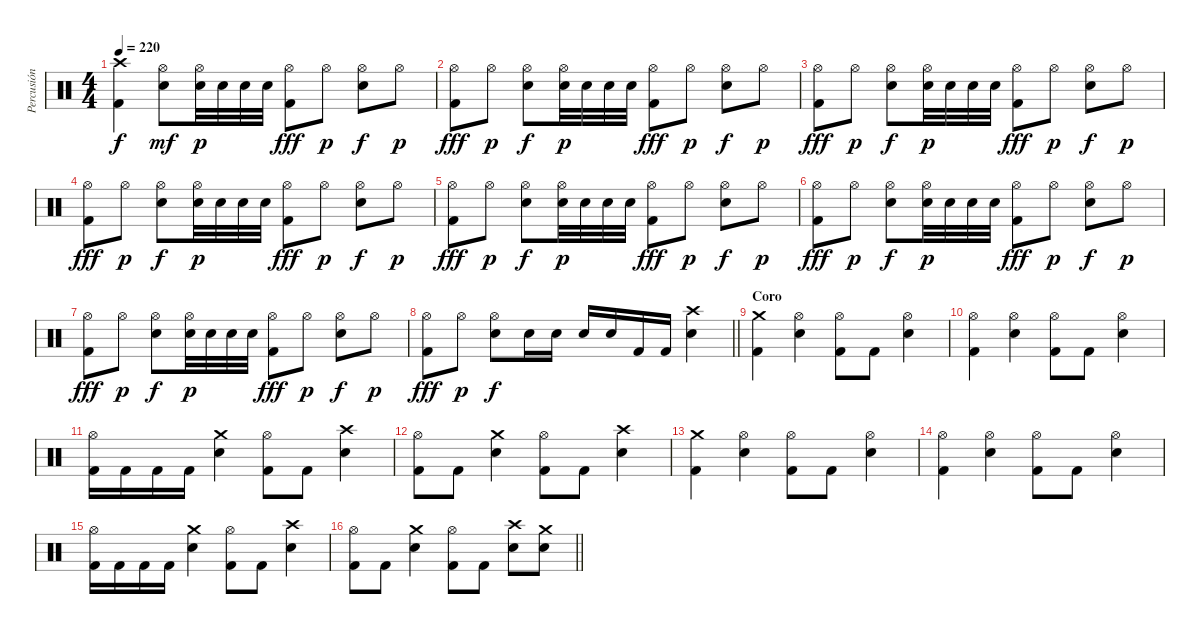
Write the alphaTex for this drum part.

\track ("Percusión" "Percusión") {instrument percussion}
\staff {score}
\articulation defaults
\ts (4 4)
\tempo 220
\clef neutral
\ks c
("Crash high (hit)" "Kick (hit) 2").4{dy f} ("Hi-Hat (open)" "Snare (hit) 2").8{dy mf} ("Hi-Hat (open)" "Snare (hit) 2").32{dy p} "Snare (hit) 2".32 "Snare (hit) 2".32 "Snare (hit) 2".32 ("Hi-Hat (open)" "Kick (hit) 2").8{dy fff} "Hi-Hat (open)".8{dy p} ("Hi-Hat (open)" "Snare (hit) 2").8{dy f} "Hi-Hat (open)".8{dy p} |
("Hi-Hat (open)" "Kick (hit) 2").8{dy fff} "Hi-Hat (open)".8{dy p} ("Hi-Hat (open)" "Snare (hit) 2").8{dy f} ("Hi-Hat (open)" "Snare (hit) 2").32{dy p} "Snare (hit) 2".32 "Snare (hit) 2".32 "Snare (hit) 2".32 ("Hi-Hat (open)" "Kick (hit) 2").8{dy fff} "Hi-Hat (open)".8{dy p} ("Hi-Hat (open)" "Snare (hit) 2").8{dy f} "Hi-Hat (open)".8{dy p} |
("Hi-Hat (open)" "Kick (hit) 2").8{dy fff} "Hi-Hat (open)".8{dy p} ("Hi-Hat (open)" "Snare (hit) 2").8{dy f} ("Hi-Hat (open)" "Snare (hit) 2").32{dy p} "Snare (hit) 2".32 "Snare (hit) 2".32 "Snare (hit) 2".32 ("Hi-Hat (open)" "Kick (hit) 2").8{dy fff} "Hi-Hat (open)".8{dy p} ("Hi-Hat (open)" "Snare (hit) 2").8{dy f} "Hi-Hat (open)".8{dy p} |
("Hi-Hat (open)" "Kick (hit) 2").8{dy fff} "Hi-Hat (open)".8{dy p} ("Hi-Hat (open)" "Snare (hit) 2").8{dy f} ("Hi-Hat (open)" "Snare (hit) 2").32{dy p} "Snare (hit) 2".32 "Snare (hit) 2".32 "Snare (hit) 2".32 ("Hi-Hat (open)" "Kick (hit) 2").8{dy fff} "Hi-Hat (open)".8{dy p} ("Hi-Hat (open)" "Snare (hit) 2").8{dy f} "Hi-Hat (open)".8{dy p} |
("Hi-Hat (open)" "Kick (hit) 2").8{dy fff} "Hi-Hat (open)".8{dy p} ("Hi-Hat (open)" "Snare (hit) 2").8{dy f} ("Hi-Hat (open)" "Snare (hit) 2").32{dy p} "Snare (hit) 2".32 "Snare (hit) 2".32 "Snare (hit) 2".32 ("Hi-Hat (open)" "Kick (hit) 2").8{dy fff} "Hi-Hat (open)".8{dy p} ("Hi-Hat (open)" "Snare (hit) 2").8{dy f} "Hi-Hat (open)".8{dy p} |
("Hi-Hat (open)" "Kick (hit) 2").8{dy fff} "Hi-Hat (open)".8{dy p} ("Hi-Hat (open)" "Snare (hit) 2").8{dy f} ("Hi-Hat (open)" "Snare (hit) 2").32{dy p} "Snare (hit) 2".32 "Snare (hit) 2".32 "Snare (hit) 2".32 ("Hi-Hat (open)" "Kick (hit) 2").8{dy fff} "Hi-Hat (open)".8{dy p} ("Hi-Hat (open)" "Snare (hit) 2").8{dy f} "Hi-Hat (open)".8{dy p} |
("Hi-Hat (open)" "Kick (hit) 2").8{dy fff} "Hi-Hat (open)".8{dy p} ("Hi-Hat (open)" "Snare (hit) 2").8{dy f} ("Hi-Hat (open)" "Snare (hit) 2").32{dy p} "Snare (hit) 2".32 "Snare (hit) 2".32 "Snare (hit) 2".32 ("Hi-Hat (open)" "Kick (hit) 2").8{dy fff} "Hi-Hat (open)".8{dy p} ("Hi-Hat (open)" "Snare (hit) 2").8{dy f} "Hi-Hat (open)".8{dy p} |
\barLineRight lightlight
("Hi-Hat (open)" "Kick (hit) 2").8{dy fff} "Hi-Hat (open)".8{dy p} ("Hi-Hat (open)" "Snare (hit) 2").8{dy f} "Snare (hit) 2".16 "Snare (hit) 2".16 "Snare (hit) 2".16 "Snare (hit) 2".16 "Kick (hit) 2".16 "Kick (hit) 2".16 ("Crash high (hit)" "Snare (hit) 2").4 |
\section ("" "Coro")
("Crash medium (hit)" "Kick (hit) 2").4 ("Hi-Hat (open)" "Snare (hit) 2").4 ("Hi-Hat (open)" "Kick (hit) 2").8 "Kick (hit) 2".8 ("Hi-Hat (open)" "Snare (hit) 2").4 |
("Hi-Hat (open)" "Kick (hit) 2").4 ("Hi-Hat (open)" "Snare (hit) 2").4 ("Hi-Hat (open)" "Kick (hit) 2").8 "Kick (hit) 2".8 ("Hi-Hat (open)" "Snare (hit) 2").4 |
("Hi-Hat (open)" "Kick (hit) 2").16 "Kick (hit) 2".16 "Kick (hit) 2".16 "Kick (hit) 2".16 ("Crash medium (hit)" "Snare (hit) 2").4 ("Hi-Hat (open)" "Kick (hit) 2").8 "Kick (hit) 2".8 ("Crash high (hit)" "Snare (hit) 2").4 |
("Hi-Hat (open)" "Kick (hit) 2").8 "Kick (hit) 2".8 ("Crash medium (hit)" "Snare (hit) 2").4 ("Hi-Hat (open)" "Kick (hit) 2").8 "Kick (hit) 2".8 ("Crash high (hit)" "Snare (hit) 2").4 |
("Crash medium (hit)" "Kick (hit) 2").4 ("Hi-Hat (open)" "Snare (hit) 2").4 ("Hi-Hat (open)" "Kick (hit) 2").8 "Kick (hit) 2".8 ("Hi-Hat (open)" "Snare (hit) 2").4 |
("Hi-Hat (open)" "Kick (hit) 2").4 ("Hi-Hat (open)" "Snare (hit) 2").4 ("Hi-Hat (open)" "Kick (hit) 2").8 "Kick (hit) 2".8 ("Hi-Hat (open)" "Snare (hit) 2").4 |
("Hi-Hat (open)" "Kick (hit) 2").16 "Kick (hit) 2".16 "Kick (hit) 2".16 "Kick (hit) 2".16 ("Crash medium (hit)" "Snare (hit) 2").4 ("Hi-Hat (open)" "Kick (hit) 2").8 "Kick (hit) 2".8 ("Crash high (hit)" "Snare (hit) 2").4 |
\barLineRight lightlight
("Hi-Hat (open)" "Kick (hit) 2").8 "Kick (hit) 2".8 ("Crash medium (hit)" "Snare (hit) 2").4 ("Hi-Hat (open)" "Kick (hit) 2").8 "Kick (hit) 2".8 ("Crash high (hit)" "Snare (hit) 2").8 ("Crash medium (hit)" "Snare (hit) 2").8
